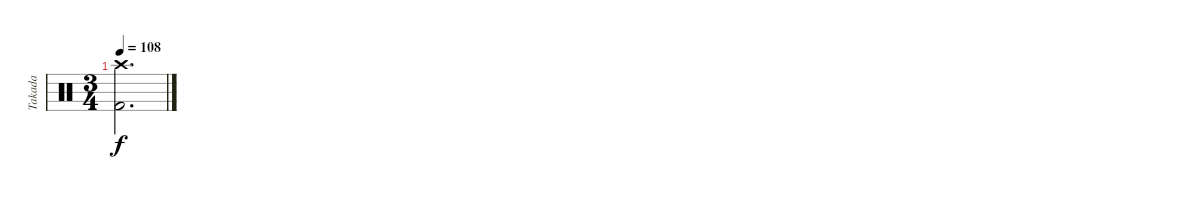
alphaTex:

\track ("Takada" "Takada") {instrument percussion}
\staff {score}
\articulation defaults
\ts (3 4)
\section ("" "")
\tempo 108
\clef neutral
\ks c
("Crash high (hit)" "Kick (hit) 2").2{d dy f}
